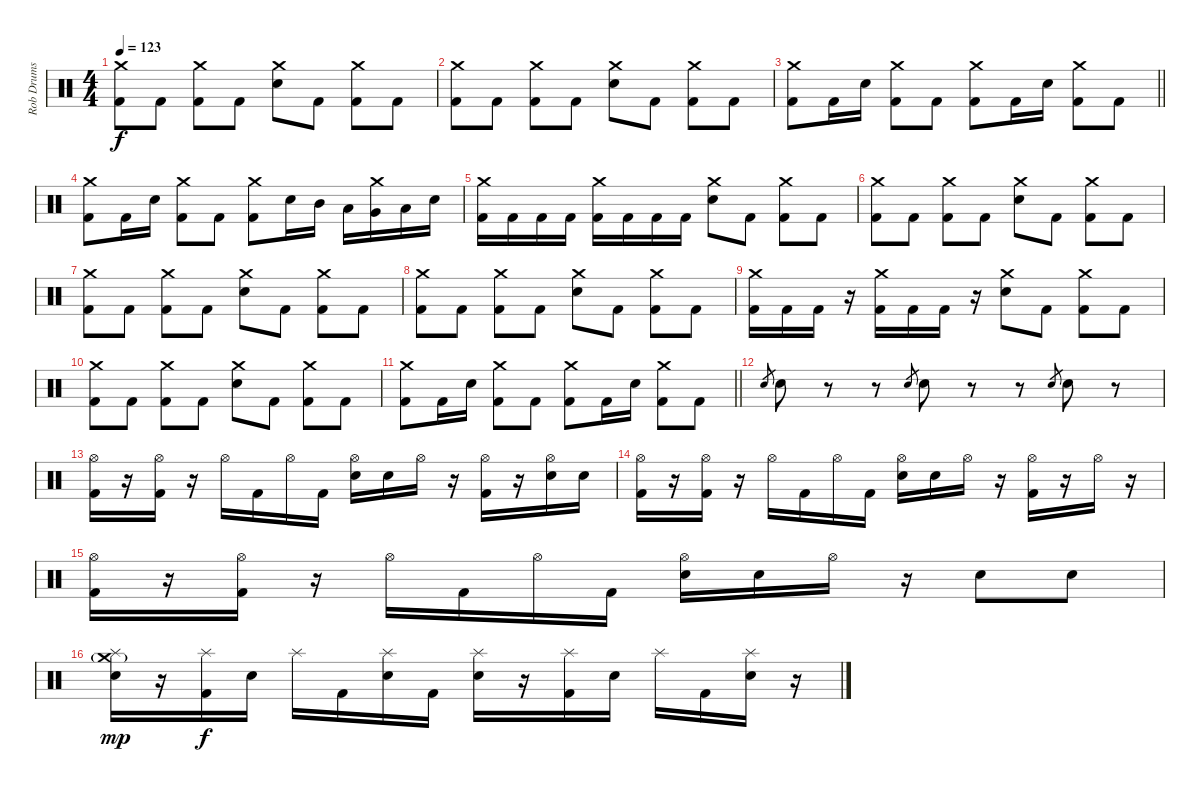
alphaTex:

\track ("Rob Drums" "Rob Drums") {instrument percussion}
\staff {score}
\articulation defaults
\ts (4 4)
\tempo 123
\clef neutral
\ks c
("Crash medium (hit)" "Kick (hit) 2").8{dy f} "Kick (hit) 2".8 ("Crash medium (hit)" "Kick (hit) 2").8 "Kick (hit) 2".8 ("Crash medium (hit)" "Electric Snare (hit)").8 "Kick (hit) 2".8 ("Crash medium (hit)" "Kick (hit) 2").8 "Kick (hit) 2".8 |
("Crash medium (hit)" "Kick (hit) 2").8 "Kick (hit) 2".8 ("Crash medium (hit)" "Kick (hit) 2").8 "Kick (hit) 2".8 ("Crash medium (hit)" "Electric Snare (hit)").8 "Kick (hit) 2".8 ("Crash medium (hit)" "Kick (hit) 2").8 "Kick (hit) 2".8 |
\barLineRight lightlight
("Crash medium (hit)" "Kick (hit) 2").8 "Kick (hit) 2".16 "Electric Snare (hit)".16 ("Crash medium (hit)" "Kick (hit) 2").8 "Kick (hit) 2".8 ("Crash medium (hit)" "Kick (hit) 2").8 "Kick (hit) 2".16 "Electric Snare (hit)".16 ("Crash medium (hit)" "Kick (hit) 2").8 "Kick (hit) 2".8 |
("Crash medium (hit)" "Kick (hit) 2").8 "Kick (hit) 2".16 "Electric Snare (hit)".16 ("Crash medium (hit)" "Kick (hit) 2").8 "Kick (hit) 2".8 ("Crash medium (hit)" "Kick (hit) 2").8 "Electric Snare (hit)".16 "Mid Tom (hit)".16 "Low Tom (hit)".16 ("Crash medium (hit)" "Very Low Tom (hit)").16 "Low Floor Tom (hit)".16 "Electric Snare (hit)".16 |
("Crash medium (hit)" "Kick (hit) 2").16 "Kick (hit) 2".16 "Kick (hit) 2".16 "Kick (hit) 2".16 ("Crash medium (hit)" "Kick (hit) 2").16 "Kick (hit) 2".16 "Kick (hit) 2".16 "Kick (hit) 2".16 ("Crash medium (hit)" "Electric Snare (hit)").8 "Kick (hit) 2".8 ("Crash medium (hit)" "Kick (hit) 2").8 "Kick (hit) 2".8 |
("Crash medium (hit)" "Kick (hit) 2").8 "Kick (hit) 2".8 ("Crash medium (hit)" "Kick (hit) 2").8 "Kick (hit) 2".8 ("Crash medium (hit)" "Electric Snare (hit)").8 "Kick (hit) 2".8 ("Crash medium (hit)" "Kick (hit) 2").8 "Kick (hit) 2".8 |
("Crash medium (hit)" "Kick (hit) 2").8 "Kick (hit) 2".8 ("Crash medium (hit)" "Kick (hit) 2").8 "Kick (hit) 2".8 ("Crash medium (hit)" "Electric Snare (hit)").8 "Kick (hit) 2".8 ("Crash medium (hit)" "Kick (hit) 2").8 "Kick (hit) 2".8 |
("Crash medium (hit)" "Kick (hit) 2").8 "Kick (hit) 2".8 ("Crash medium (hit)" "Kick (hit) 2").8 "Kick (hit) 2".8 ("Crash medium (hit)" "Electric Snare (hit)").8 "Kick (hit) 2".8 ("Crash medium (hit)" "Kick (hit) 2").8 "Kick (hit) 2".8 |
("Crash medium (hit)" "Kick (hit) 2").16 "Kick (hit) 2".16 "Kick (hit) 2".16 r.16 ("Crash medium (hit)" "Kick (hit) 2").16 "Kick (hit) 2".16 "Kick (hit) 2".16 r.16 ("Crash medium (hit)" "Electric Snare (hit)").8 "Kick (hit) 2".8 ("Crash medium (hit)" "Kick (hit) 2").8 "Kick (hit) 2".8 |
("Crash medium (hit)" "Kick (hit) 2").8 "Kick (hit) 2".8 ("Crash medium (hit)" "Kick (hit) 2").8 "Kick (hit) 2".8 ("Crash medium (hit)" "Electric Snare (hit)").8 "Kick (hit) 2".8 ("Crash medium (hit)" "Kick (hit) 2").8 "Kick (hit) 2".8 |
\barLineRight lightlight
("Crash medium (hit)" "Kick (hit) 2").8 "Kick (hit) 2".16 "Electric Snare (hit)".16 ("Crash medium (hit)" "Kick (hit) 2").8 "Kick (hit) 2".8 ("Crash medium (hit)" "Kick (hit) 2").8 "Kick (hit) 2".16 "Electric Snare (hit)".16 ("Crash medium (hit)" "Kick (hit) 2").8 "Kick (hit) 2".8 |
"Electric Snare (hit)".8{gr} "Electric Snare (hit)".8 r.8 r.8 "Electric Snare (hit)".8{gr} "Electric Snare (hit)".8 r.8 r.8 "Electric Snare (hit)".8{gr} "Electric Snare (hit)".8 r.8 |
("Hi-Hat (open)" "Kick (hit) 2").16 r.16 ("Hi-Hat (open)" "Kick (hit) 2").16 r.16 "Hi-Hat (open)".16 "Kick (hit) 2".16 "Hi-Hat (open)".16 "Kick (hit) 2".16 ("Hi-Hat (open)" "Electric Snare (hit)").16 "Electric Snare (hit)".16 "Hi-Hat (open)".16 r.16 ("Hi-Hat (open)" "Kick (hit) 2").16 r.16 ("Hi-Hat (open)" "Electric Snare (hit)").16 "Electric Snare (hit)".16 |
("Hi-Hat (open)" "Kick (hit) 2").16 r.16 ("Hi-Hat (open)" "Kick (hit) 2").16 r.16 "Hi-Hat (open)".16 "Kick (hit) 2".16 "Hi-Hat (open)".16 "Kick (hit) 2".16 ("Hi-Hat (open)" "Electric Snare (hit)").16 "Electric Snare (hit)".16 "Hi-Hat (open)".16 r.16 ("Hi-Hat (open)" "Kick (hit) 2").16 r.16 "Hi-Hat (open)".16 r.16 |
("Hi-Hat (open)" "Kick (hit) 2").16 r.16 ("Hi-Hat (open)" "Kick (hit) 2").16 r.16 "Hi-Hat (open)".16 "Kick (hit) 2".16 "Hi-Hat (open)".16 "Kick (hit) 2".16 ("Hi-Hat (open)" "Electric Snare (hit)").16 "Electric Snare (hit)".16 "Hi-Hat (open)".16 r.16 "Electric Snare (hit)".8 "Electric Snare (hit)".8 |
("Splash (hit)" "Crash medium (hit)"{g} "Electric Snare (hit)").16{dy mp} r.16 ("Splash (hit)" "Kick (hit) 2").16{dy f} "Electric Snare (hit)".16 "Splash (hit)".16 "Kick (hit) 2".16 ("Splash (hit)" "Electric Snare (hit)").16 "Kick (hit) 2".16 ("Splash (hit)" "Electric Snare (hit)").16 r.16 ("Splash (hit)" "Kick (hit) 2").16 "Electric Snare (hit)".16 "Splash (hit)".16 "Kick (hit) 2".16 ("Splash (hit)" "Electric Snare (hit)").16 r.16
